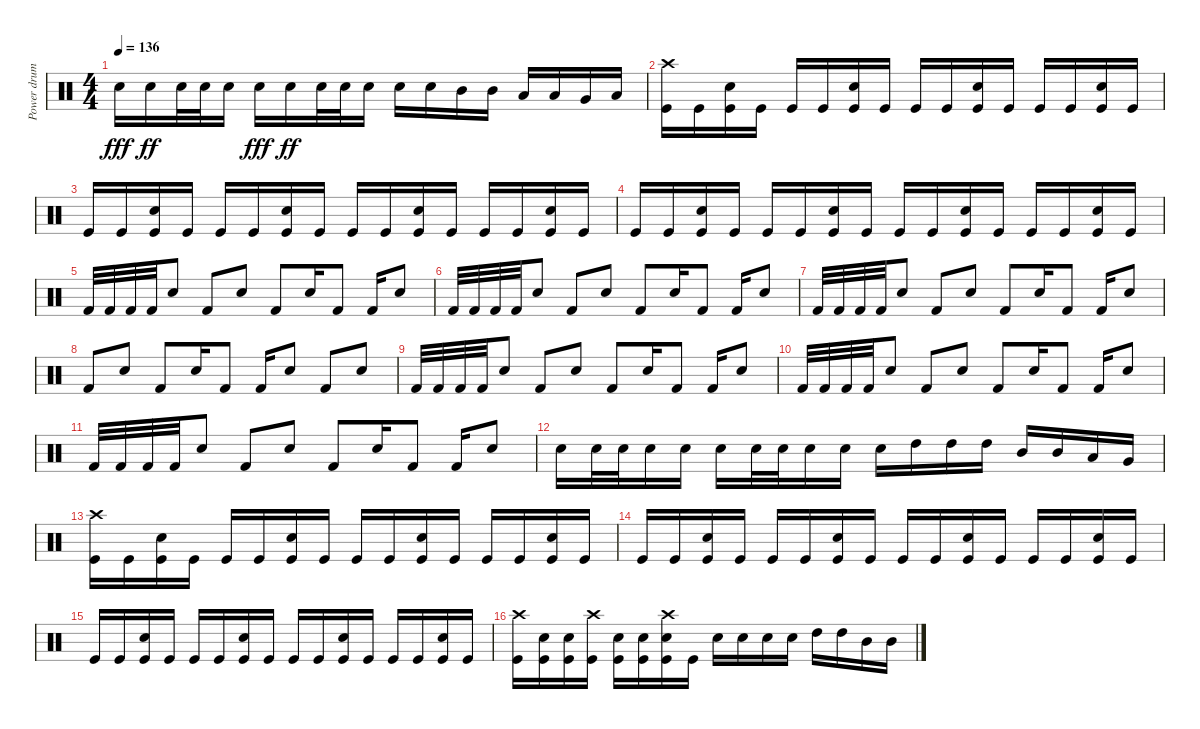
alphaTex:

\track ("Power drums" "Power drum") {instrument percussion}
\staff {score}
\articulation defaults
\ts (4 4)
\tempo 136
\clef neutral
\ks c "Snare (hit) 2".16{dy fff} "Snare (hit) 2".16{dy ff} "Snare (hit) 2".32 "Snare (hit) 2".32 "Snare (hit) 2".16 "Snare (hit) 2".16{dy fff} "Snare (hit) 2".16{dy ff} "Snare (hit) 2".32 "Snare (hit) 2".32 "Snare (hit) 2".16 "Snare (hit) 2".16 "Snare (hit) 2".16 "Mid Tom (hit)".16 "Mid Tom (hit)".16 "Low Tom (hit)".16 "Low Tom (hit)".16 "Very Low Tom (hit)".16 "Low Floor Tom (hit)".16
|
("Kick (hit)" "Crash high (hit)").16 "Kick (hit)".16 ("Kick (hit)" "Snare (hit) 2").16 "Kick (hit)".16 "Kick (hit)".16 "Kick (hit)".16 ("Kick (hit)" "Snare (hit) 2").16 "Kick (hit)".16 "Kick (hit)".16 "Kick (hit)".16 ("Kick (hit)" "Snare (hit) 2").16 "Kick (hit)".16 "Kick (hit)".16 "Kick (hit)".16 ("Kick (hit)" "Snare (hit) 2").16 "Kick (hit)".16 |
"Kick (hit)".16 "Kick (hit)".16 ("Kick (hit)" "Snare (hit) 2").16 "Kick (hit)".16 "Kick (hit)".16 "Kick (hit)".16 ("Kick (hit)" "Snare (hit) 2").16 "Kick (hit)".16 "Kick (hit)".16 "Kick (hit)".16 ("Kick (hit)" "Snare (hit) 2").16 "Kick (hit)".16 "Kick (hit)".16 "Kick (hit)".16 ("Kick (hit)" "Snare (hit) 2").16 "Kick (hit)".16 |
"Kick (hit)".16 "Kick (hit)".16 ("Kick (hit)" "Snare (hit) 2").16 "Kick (hit)".16 "Kick (hit)".16 "Kick (hit)".16 ("Kick (hit)" "Snare (hit) 2").16 "Kick (hit)".16 "Kick (hit)".16 "Kick (hit)".16 ("Kick (hit)" "Snare (hit) 2").16 "Kick (hit)".16 "Kick (hit)".16 "Kick (hit)".16 ("Kick (hit)" "Snare (hit) 2").16 "Kick (hit)".16 |
"Kick (hit) 2".32 "Kick (hit) 2".32 "Kick (hit) 2".32 "Kick (hit) 2".32 "Snare (hit) 2".8 "Kick (hit) 2".8 "Snare (hit) 2".8 "Kick (hit) 2".8 "Snare (hit) 2".16 "Kick (hit) 2".8 "Kick (hit) 2".16 "Snare (hit) 2".8 |
"Kick (hit) 2".32 "Kick (hit) 2".32 "Kick (hit) 2".32 "Kick (hit) 2".32 "Snare (hit) 2".8 "Kick (hit) 2".8 "Snare (hit) 2".8 "Kick (hit) 2".8 "Snare (hit) 2".16 "Kick (hit) 2".8 "Kick (hit) 2".16 "Snare (hit) 2".8 |
"Kick (hit) 2".32 "Kick (hit) 2".32 "Kick (hit) 2".32 "Kick (hit) 2".32 "Snare (hit) 2".8 "Kick (hit) 2".8 "Snare (hit) 2".8 "Kick (hit) 2".8 "Snare (hit) 2".16 "Kick (hit) 2".8 "Kick (hit) 2".16 "Snare (hit) 2".8 |
"Kick (hit) 2".8 "Snare (hit) 2".8 "Kick (hit) 2".8 "Snare (hit) 2".16 "Kick (hit) 2".8 "Kick (hit) 2".16 "Snare (hit) 2".8 "Kick (hit) 2".8 "Snare (hit) 2".8 |
"Kick (hit) 2".32 "Kick (hit) 2".32 "Kick (hit) 2".32 "Kick (hit) 2".32 "Snare (hit) 2".8 "Kick (hit) 2".8 "Snare (hit) 2".8 "Kick (hit) 2".8 "Snare (hit) 2".16 "Kick (hit) 2".8 "Kick (hit) 2".16 "Snare (hit) 2".8 |
"Kick (hit) 2".32 "Kick (hit) 2".32 "Kick (hit) 2".32 "Kick (hit) 2".32 "Snare (hit) 2".8 "Kick (hit) 2".8 "Snare (hit) 2".8 "Kick (hit) 2".8 "Snare (hit) 2".16 "Kick (hit) 2".8 "Kick (hit) 2".16 "Snare (hit) 2".8 |
"Kick (hit) 2".32 "Kick (hit) 2".32 "Kick (hit) 2".32 "Kick (hit) 2".32 "Snare (hit) 2".8 "Kick (hit) 2".8 "Snare (hit) 2".8 "Kick (hit) 2".8 "Snare (hit) 2".16 "Kick (hit) 2".8 "Kick (hit) 2".16 "Snare (hit) 2".8 |
"Snare (hit) 2".16 "Snare (hit) 2".32 "Snare (hit) 2".32 "Snare (hit) 2".16 "Snare (hit) 2".16 "Snare (hit) 2".16 "Snare (hit) 2".32 "Snare (hit) 2".32 "Snare (hit) 2".16 "Snare (hit) 2".16 "Snare (hit) 2".16 "High Tom (hit)".16 "High Tom (hit)".16 "High Tom (hit)".16 "Mid Tom (hit)".16 "Mid Tom (hit)".16 "Low Tom (hit)".16 "Very Low Tom (hit)".16 |
("Kick (hit)" "Crash high (hit)").16 "Kick (hit)".16 ("Kick (hit)" "Snare (hit) 2").16 "Kick (hit)".16 "Kick (hit)".16 "Kick (hit)".16 ("Kick (hit)" "Snare (hit) 2").16 "Kick (hit)".16 "Kick (hit)".16 "Kick (hit)".16 ("Kick (hit)" "Snare (hit) 2").16 "Kick (hit)".16 "Kick (hit)".16 "Kick (hit)".16 ("Kick (hit)" "Snare (hit) 2").16 "Kick (hit)".16 |
"Kick (hit)".16 "Kick (hit)".16 ("Kick (hit)" "Snare (hit) 2").16 "Kick (hit)".16 "Kick (hit)".16 "Kick (hit)".16 ("Kick (hit)" "Snare (hit) 2").16 "Kick (hit)".16 "Kick (hit)".16 "Kick (hit)".16 ("Kick (hit)" "Snare (hit) 2").16 "Kick (hit)".16 "Kick (hit)".16 "Kick (hit)".16 ("Kick (hit)" "Snare (hit) 2").16 "Kick (hit)".16 |
"Kick (hit)".16 "Kick (hit)".16 ("Kick (hit)" "Snare (hit) 2").16 "Kick (hit)".16 "Kick (hit)".16 "Kick (hit)".16 ("Kick (hit)" "Snare (hit) 2").16 "Kick (hit)".16 "Kick (hit)".16 "Kick (hit)".16 ("Kick (hit)" "Snare (hit) 2").16 "Kick (hit)".16 "Kick (hit)".16 "Kick (hit)".16 ("Kick (hit)" "Snare (hit) 2").16 "Kick (hit)".16 |
("Kick (hit)" "Crash high (hit)").16 ("Kick (hit)" "Snare (hit) 2").16 ("Kick (hit)" "Snare (hit) 2").16 ("Kick (hit)" "Crash high (hit)").16 ("Kick (hit)" "Snare (hit) 2").16 ("Kick (hit)" "Snare (hit) 2").16 ("Kick (hit)" "Snare (hit) 2" "Crash high (hit)").16 "Kick (hit)".16 "Snare (hit) 2".16 "Snare (hit) 2".16 "Snare (hit) 2".16 "Snare (hit) 2".16 "High Tom (hit)".16 "High Tom (hit)".16 "Mid Tom (hit)".16 "Mid Tom (hit)".16
